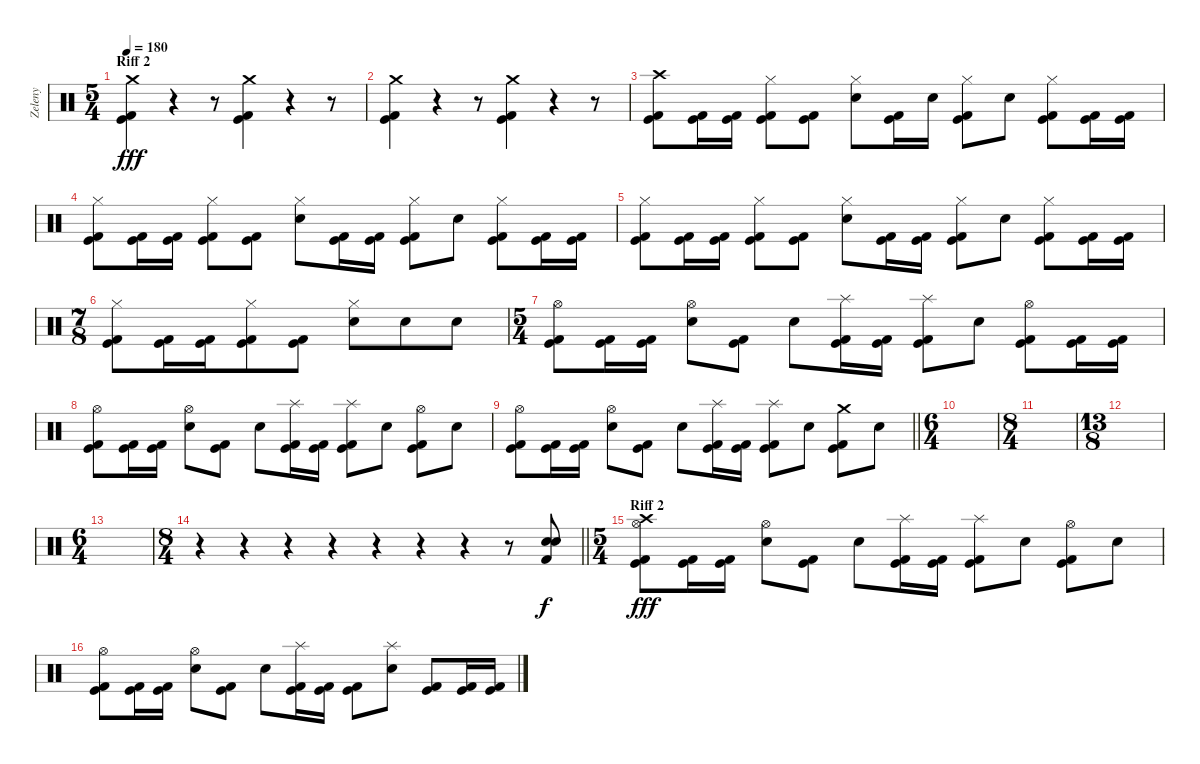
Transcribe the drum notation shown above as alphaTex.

\track ("Zeleny" "Zeleny") {instrument percussion}
\staff {score}
\articulation defaults
\ts (5 4)
\section ("" "Riff 2")
\tempo 180
\clef neutral
\ks c
("Crash medium (hit)" "Kick (hit)" "Kick (hit) 2").4{dy fff} r.4 r.8 ("Crash medium (hit)" "Kick (hit)" "Kick (hit) 2").4 r.4 r.8 |
("Crash medium (hit)" "Kick (hit)" "Kick (hit) 2").4 r.4 r.8 ("Crash medium (hit)" "Kick (hit)" "Kick (hit) 2").4 r.4 r.8 |
("Crash high (hit)" "Kick (hit)" "Kick (hit) 2").8 ("Kick (hit)" "Kick (hit) 2").16 ("Kick (hit)" "Kick (hit) 2").16 ("Hi-Hat (closed)" "Kick (hit)" "Kick (hit) 2").8 ("Kick (hit)" "Kick (hit) 2").8 ("Hi-Hat (closed)" "Snare (hit) 2").8 ("Kick (hit)" "Kick (hit) 2").16 "Snare (hit) 2".16 ("Hi-Hat (closed)" "Kick (hit)" "Kick (hit) 2").8 "Snare (hit) 2".8 ("Hi-Hat (closed)" "Kick (hit)" "Kick (hit) 2").8 ("Kick (hit)" "Kick (hit) 2").16 ("Kick (hit)" "Kick (hit) 2").16 |
("Hi-Hat (closed)" "Kick (hit)" "Kick (hit) 2").8 ("Kick (hit)" "Kick (hit) 2").16 ("Kick (hit)" "Kick (hit) 2").16 ("Hi-Hat (closed)" "Kick (hit)" "Kick (hit) 2").8 ("Kick (hit)" "Kick (hit) 2").8 ("Hi-Hat (closed)" "Snare (hit) 2").8 ("Kick (hit)" "Kick (hit) 2").16 ("Kick (hit)" "Kick (hit) 2").16 ("Hi-Hat (closed)" "Kick (hit)" "Kick (hit) 2").8 "Snare (hit) 2".8 ("Hi-Hat (closed)" "Kick (hit)" "Kick (hit) 2").8 ("Kick (hit)" "Kick (hit) 2").16 ("Kick (hit)" "Kick (hit) 2").16 |
("Hi-Hat (closed)" "Kick (hit)" "Kick (hit) 2").8 ("Kick (hit)" "Kick (hit) 2").16 ("Kick (hit)" "Kick (hit) 2").16 ("Hi-Hat (closed)" "Kick (hit)" "Kick (hit) 2").8 ("Kick (hit)" "Kick (hit) 2").8 ("Hi-Hat (closed)" "Snare (hit) 2").8 ("Kick (hit)" "Kick (hit) 2").16 ("Kick (hit)" "Kick (hit) 2").16 ("Hi-Hat (closed)" "Kick (hit)" "Kick (hit) 2").8 "Snare (hit) 2".8 ("Hi-Hat (closed)" "Kick (hit)" "Kick (hit) 2").8 ("Kick (hit)" "Kick (hit) 2").16 ("Kick (hit)" "Kick (hit) 2").16 |
\ts (7 8)
("Hi-Hat (closed)" "Kick (hit)" "Kick (hit) 2").8 ("Kick (hit)" "Kick (hit) 2").16 ("Kick (hit)" "Kick (hit) 2").16 ("Hi-Hat (closed)" "Kick (hit)" "Kick (hit) 2").8 ("Kick (hit)" "Kick (hit) 2").8 ("Hi-Hat (closed)" "Snare (hit) 2").8 "Snare (hit) 2".8 "Snare (hit) 2".8 |
\ts (5 4)
("Hi-Hat (open)" "Kick (hit)" "Kick (hit) 2").8 ("Kick (hit)" "Kick (hit) 2").16 ("Kick (hit)" "Kick (hit) 2").16 ("Hi-Hat (open)" "Snare (hit) 2").8 ("Kick (hit)" "Kick (hit) 2").8 "Snare (hit) 2".8 ("Splash (hit)" "Kick (hit)" "Kick (hit) 2").16 ("Kick (hit)" "Kick (hit) 2").16 ("Splash (hit)" "Kick (hit)" "Kick (hit) 2").8 "Snare (hit) 2".8 ("Hi-Hat (open)" "Kick (hit)" "Kick (hit) 2").8 ("Kick (hit)" "Kick (hit) 2").16 ("Kick (hit)" "Kick (hit) 2").16 |
("Hi-Hat (open)" "Kick (hit)" "Kick (hit) 2").8 ("Kick (hit)" "Kick (hit) 2").16 ("Kick (hit)" "Kick (hit) 2").16 ("Hi-Hat (open)" "Snare (hit) 2").8 ("Kick (hit)" "Kick (hit) 2").8 "Snare (hit) 2".8 ("Splash (hit)" "Kick (hit)" "Kick (hit) 2").16 ("Kick (hit)" "Kick (hit) 2").16 ("Splash (hit)" "Kick (hit)" "Kick (hit) 2").8 "Snare (hit) 2".8 ("Hi-Hat (open)" "Kick (hit)" "Kick (hit) 2").8 "Snare (hit) 2".8 |
\barLineRight lightlight
("Hi-Hat (open)" "Kick (hit)" "Kick (hit) 2").8 ("Kick (hit)" "Kick (hit) 2").16 ("Kick (hit)" "Kick (hit) 2").16 ("Hi-Hat (open)" "Snare (hit) 2").8 ("Kick (hit)" "Kick (hit) 2").8 "Snare (hit) 2".8 ("Splash (hit)" "Kick (hit)" "Kick (hit) 2").16 ("Kick (hit)" "Kick (hit) 2").16 ("Splash (hit)" "Kick (hit)" "Kick (hit) 2").8 "Snare (hit) 2".8 ("Crash medium (hit)" "Kick (hit)" "Kick (hit) 2").8 "Snare (hit) 2".8 |
\ts (6 4)
\section ("" "")
|
\ts (8 4)
|
\ts (13 8)
|
\ts (6 4)
|
\ts (8 4)
\barLineRight lightlight
r.4 r.4 r.4 r.4 r.4 r.4 r.4 r.8 ("Snare (hit) 2" "Electric Snare (hit)" "Kick (hit) 2").8{dy f} |
\ts (5 4)
\section ("" "Riff 2")
("Crash high (hit)" "Hi-Hat (open)" "Kick (hit)" "Kick (hit) 2").8{dy fff} ("Kick (hit)" "Kick (hit) 2").16 ("Kick (hit)" "Kick (hit) 2").16 ("Hi-Hat (open)" "Snare (hit) 2").8 ("Kick (hit)" "Kick (hit) 2").8 "Snare (hit) 2".8 ("Splash (hit)" "Kick (hit)" "Kick (hit) 2").16 ("Kick (hit)" "Kick (hit) 2").16 ("Splash (hit)" "Kick (hit)" "Kick (hit) 2").8 "Snare (hit) 2".8 ("Hi-Hat (open)" "Kick (hit)" "Kick (hit) 2").8 "Snare (hit) 2".8 |
("Hi-Hat (open)" "Kick (hit)" "Kick (hit) 2").8 ("Kick (hit)" "Kick (hit) 2").16 ("Kick (hit)" "Kick (hit) 2").16 ("Hi-Hat (open)" "Snare (hit) 2").8 ("Kick (hit)" "Kick (hit) 2").8 "Snare (hit) 2".8 ("Splash (hit)" "Kick (hit)" "Kick (hit) 2").16 ("Kick (hit)" "Kick (hit) 2").16 ("Kick (hit)" "Kick (hit) 2").8 ("Splash (hit)" "Snare (hit) 2").8 ("Kick (hit)" "Kick (hit) 2").8 ("Kick (hit)" "Kick (hit) 2").16 ("Kick (hit)" "Kick (hit) 2").16
